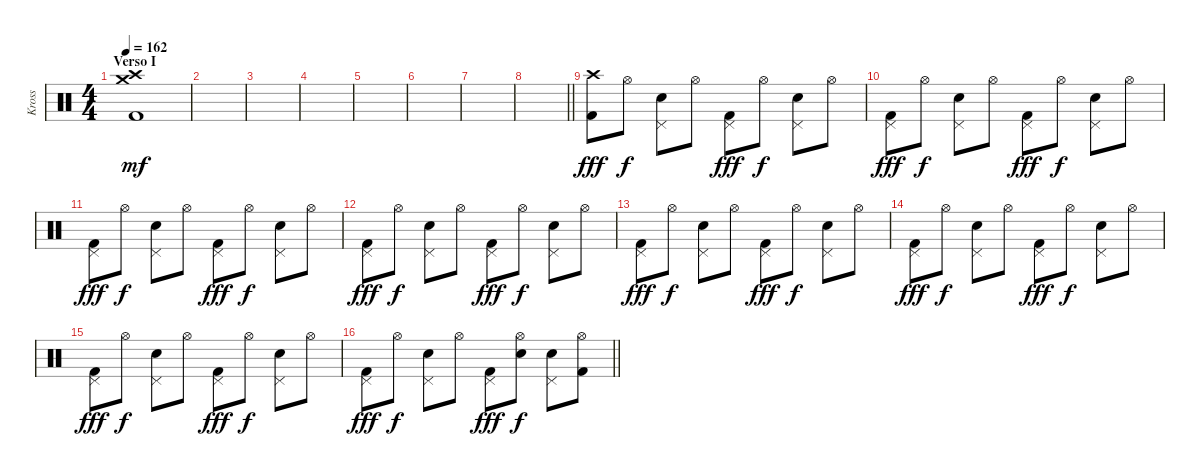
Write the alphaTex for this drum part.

\track ("Kross" "Kross") {instrument percussion}
\staff {score}
\articulation defaults
\ts (4 4)
\section ("" "Verso I")
\tempo 162
\clef neutral
\ks c
("Crash medium (hit)" "Crash high (hit)" "Kick (hit) 2").1{dy mf} |
|
|
|
|
|
|
\barLineRight lightlight
|
("Crash high (hit)" "Kick (hit) 2").8{dy fff} "Hi-Hat (open)".8{dy f} ("Pedal Hi-Hat (hit)" "Snare (hit) 2").8 "Hi-Hat (open)".8 ("Pedal Hi-Hat (hit)" "Kick (hit) 2").8{dy fff} "Hi-Hat (open)".8{dy f} ("Pedal Hi-Hat (hit)" "Snare (hit) 2").8 "Hi-Hat (open)".8 |
("Pedal Hi-Hat (hit)" "Kick (hit) 2").8{dy fff} "Hi-Hat (open)".8{dy f} ("Pedal Hi-Hat (hit)" "Snare (hit) 2").8 "Hi-Hat (open)".8 ("Pedal Hi-Hat (hit)" "Kick (hit) 2").8{dy fff} "Hi-Hat (open)".8{dy f} ("Pedal Hi-Hat (hit)" "Snare (hit) 2").8 "Hi-Hat (open)".8 |
("Pedal Hi-Hat (hit)" "Kick (hit) 2").8{dy fff} "Hi-Hat (open)".8{dy f} ("Pedal Hi-Hat (hit)" "Snare (hit) 2").8 "Hi-Hat (open)".8 ("Pedal Hi-Hat (hit)" "Kick (hit) 2").8{dy fff} "Hi-Hat (open)".8{dy f} ("Pedal Hi-Hat (hit)" "Snare (hit) 2").8 "Hi-Hat (open)".8 |
("Pedal Hi-Hat (hit)" "Kick (hit) 2").8{dy fff} "Hi-Hat (open)".8{dy f} ("Pedal Hi-Hat (hit)" "Snare (hit) 2").8 "Hi-Hat (open)".8 ("Pedal Hi-Hat (hit)" "Kick (hit) 2").8{dy fff} "Hi-Hat (open)".8{dy f} ("Pedal Hi-Hat (hit)" "Snare (hit) 2").8 "Hi-Hat (open)".8 |
("Pedal Hi-Hat (hit)" "Kick (hit) 2").8{dy fff} "Hi-Hat (open)".8{dy f} ("Pedal Hi-Hat (hit)" "Snare (hit) 2").8 "Hi-Hat (open)".8 ("Pedal Hi-Hat (hit)" "Kick (hit) 2").8{dy fff} "Hi-Hat (open)".8{dy f} ("Pedal Hi-Hat (hit)" "Snare (hit) 2").8 "Hi-Hat (open)".8 |
("Pedal Hi-Hat (hit)" "Kick (hit) 2").8{dy fff} "Hi-Hat (open)".8{dy f} ("Pedal Hi-Hat (hit)" "Snare (hit) 2").8 "Hi-Hat (open)".8 ("Pedal Hi-Hat (hit)" "Kick (hit) 2").8{dy fff} "Hi-Hat (open)".8{dy f} ("Pedal Hi-Hat (hit)" "Snare (hit) 2").8 "Hi-Hat (open)".8 |
("Pedal Hi-Hat (hit)" "Kick (hit) 2").8{dy fff} "Hi-Hat (open)".8{dy f} ("Pedal Hi-Hat (hit)" "Snare (hit) 2").8 "Hi-Hat (open)".8 ("Pedal Hi-Hat (hit)" "Kick (hit) 2").8{dy fff} "Hi-Hat (open)".8{dy f} ("Pedal Hi-Hat (hit)" "Snare (hit) 2").8 "Hi-Hat (open)".8 |
\barLineRight lightlight
("Pedal Hi-Hat (hit)" "Kick (hit) 2").8{dy fff} "Hi-Hat (open)".8{dy f} ("Pedal Hi-Hat (hit)" "Snare (hit) 2").8 "Hi-Hat (open)".8 ("Pedal Hi-Hat (hit)" "Kick (hit) 2").8{dy fff} ("Hi-Hat (open)" "Snare (hit) 2").8{dy f} ("Pedal Hi-Hat (hit)" "Snare (hit) 2").8 ("Hi-Hat (open)" "Kick (hit) 2").8
